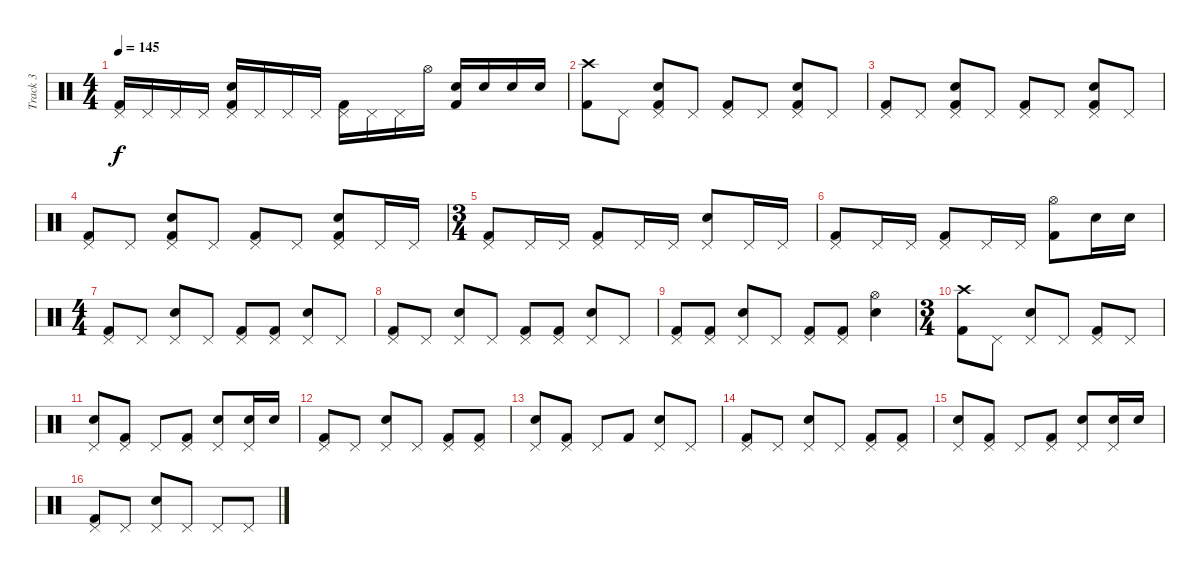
\track ("Track 3" "Track 3") {instrument percussion}
\staff {score}
\articulation defaults
\ts (4 4)
\tempo 145
\clef neutral
\ks c
("Pedal Hi-Hat (hit)" "Kick (hit) 2").16{dy f} "Pedal Hi-Hat (hit)".16 "Pedal Hi-Hat (hit)".16 "Pedal Hi-Hat (hit)".16 ("Pedal Hi-Hat (hit)" "Kick (hit) 2" "Electric Snare (hit)").16 "Pedal Hi-Hat (hit)".16 "Pedal Hi-Hat (hit)".16 "Pedal Hi-Hat (hit)".16 ("Pedal Hi-Hat (hit)" "Kick (hit) 2").16 "Pedal Hi-Hat (hit)".16 "Pedal Hi-Hat (hit)".16 "Hi-Hat (open)".16 ("Kick (hit) 2" "Electric Snare (hit)").16 "Electric Snare (hit)".16 "Electric Snare (hit)".16 "Electric Snare (hit)".16 |
("Crash high (hit)" "Kick (hit) 2").8 "Pedal Hi-Hat (hit)".8 ("Pedal Hi-Hat (hit)" "Kick (hit) 2" "Electric Snare (hit)").8 "Pedal Hi-Hat (hit)".8 ("Pedal Hi-Hat (hit)" "Kick (hit) 2").8 "Pedal Hi-Hat (hit)".8 ("Pedal Hi-Hat (hit)" "Kick (hit) 2" "Electric Snare (hit)").8 "Pedal Hi-Hat (hit)".8 |
("Pedal Hi-Hat (hit)" "Kick (hit) 2").8 "Pedal Hi-Hat (hit)".8 ("Pedal Hi-Hat (hit)" "Kick (hit) 2" "Electric Snare (hit)").8 "Pedal Hi-Hat (hit)".8 ("Pedal Hi-Hat (hit)" "Kick (hit) 2").8 "Pedal Hi-Hat (hit)".8 ("Pedal Hi-Hat (hit)" "Kick (hit) 2" "Electric Snare (hit)").8 "Pedal Hi-Hat (hit)".8 |
("Pedal Hi-Hat (hit)" "Kick (hit) 2").8 "Pedal Hi-Hat (hit)".8 ("Pedal Hi-Hat (hit)" "Kick (hit) 2" "Electric Snare (hit)").8 "Pedal Hi-Hat (hit)".8 ("Pedal Hi-Hat (hit)" "Kick (hit) 2").8 "Pedal Hi-Hat (hit)".8 ("Pedal Hi-Hat (hit)" "Kick (hit) 2" "Electric Snare (hit)").8 "Pedal Hi-Hat (hit)".16 "Pedal Hi-Hat (hit)".16 |
\ts (3 4)
("Pedal Hi-Hat (hit)" "Kick (hit) 2").8 "Pedal Hi-Hat (hit)".16 "Pedal Hi-Hat (hit)".16 ("Pedal Hi-Hat (hit)" "Kick (hit) 2").8 "Pedal Hi-Hat (hit)".16 "Pedal Hi-Hat (hit)".16 ("Pedal Hi-Hat (hit)" "Electric Snare (hit)").8 "Pedal Hi-Hat (hit)".16 "Pedal Hi-Hat (hit)".16 |
("Pedal Hi-Hat (hit)" "Kick (hit) 2").8 "Pedal Hi-Hat (hit)".16 "Pedal Hi-Hat (hit)".16 ("Pedal Hi-Hat (hit)" "Kick (hit) 2").8 "Pedal Hi-Hat (hit)".16 "Pedal Hi-Hat (hit)".16 ("Hi-Hat (open)" "Kick (hit) 2").8 "Electric Snare (hit)".16 "Electric Snare (hit)".16 |
\ts (4 4)
("Kick (hit) 2" "Pedal Hi-Hat (hit)").8 "Pedal Hi-Hat (hit)".8 ("Electric Snare (hit)" "Pedal Hi-Hat (hit)").8 "Pedal Hi-Hat (hit)".8 ("Pedal Hi-Hat (hit)" "Kick (hit) 2").8 ("Kick (hit) 2" "Pedal Hi-Hat (hit)").8 ("Pedal Hi-Hat (hit)" "Electric Snare (hit)").8 "Pedal Hi-Hat (hit)".8 |
("Kick (hit) 2" "Pedal Hi-Hat (hit)").8 "Pedal Hi-Hat (hit)".8 ("Electric Snare (hit)" "Pedal Hi-Hat (hit)").8 "Pedal Hi-Hat (hit)".8 ("Pedal Hi-Hat (hit)" "Kick (hit) 2").8 ("Kick (hit) 2" "Pedal Hi-Hat (hit)").8 ("Pedal Hi-Hat (hit)" "Electric Snare (hit)").8 "Pedal Hi-Hat (hit)".8 |
("Pedal Hi-Hat (hit)" "Kick (hit) 2").8 ("Kick (hit) 2" "Pedal Hi-Hat (hit)").8 ("Pedal Hi-Hat (hit)" "Electric Snare (hit)").8 "Pedal Hi-Hat (hit)".8 ("Pedal Hi-Hat (hit)" "Kick (hit) 2").8 ("Kick (hit) 2" "Pedal Hi-Hat (hit)").8 ("Hi-Hat (open)" "Electric Snare (hit)").4 |
\ts (3 4)
("Crash high (hit)" "Kick (hit) 2").8 "Pedal Hi-Hat (hit)".8 ("Pedal Hi-Hat (hit)" "Electric Snare (hit)").8 "Pedal Hi-Hat (hit)".8 ("Pedal Hi-Hat (hit)" "Kick (hit) 2").8 "Pedal Hi-Hat (hit)".8 |
("Pedal Hi-Hat (hit)" "Electric Snare (hit)").8 ("Pedal Hi-Hat (hit)" "Kick (hit) 2").8 "Pedal Hi-Hat (hit)".8 ("Pedal Hi-Hat (hit)" "Kick (hit) 2").8 ("Electric Snare (hit)" "Pedal Hi-Hat (hit)").8 ("Pedal Hi-Hat (hit)" "Electric Snare (hit)").16 "Electric Snare (hit)".16 |
("Pedal Hi-Hat (hit)" "Kick (hit) 2").8 "Pedal Hi-Hat (hit)".8 ("Pedal Hi-Hat (hit)" "Electric Snare (hit)").8 "Pedal Hi-Hat (hit)".8 ("Pedal Hi-Hat (hit)" "Kick (hit) 2").8 ("Pedal Hi-Hat (hit)" "Kick (hit) 2").8 |
("Pedal Hi-Hat (hit)" "Electric Snare (hit)").8 ("Pedal Hi-Hat (hit)" "Kick (hit) 2").8 "Pedal Hi-Hat (hit)".8 "Kick (hit) 2".8 ("Pedal Hi-Hat (hit)" "Electric Snare (hit)").8 "Pedal Hi-Hat (hit)".8 |
("Pedal Hi-Hat (hit)" "Kick (hit) 2").8 "Pedal Hi-Hat (hit)".8 ("Pedal Hi-Hat (hit)" "Electric Snare (hit)").8 "Pedal Hi-Hat (hit)".8 ("Pedal Hi-Hat (hit)" "Kick (hit) 2").8 ("Pedal Hi-Hat (hit)" "Kick (hit) 2").8 |
("Pedal Hi-Hat (hit)" "Electric Snare (hit)").8 ("Pedal Hi-Hat (hit)" "Kick (hit) 2").8 "Pedal Hi-Hat (hit)".8 ("Pedal Hi-Hat (hit)" "Kick (hit) 2").8 ("Electric Snare (hit)" "Pedal Hi-Hat (hit)").8 ("Pedal Hi-Hat (hit)" "Electric Snare (hit)").16 "Electric Snare (hit)".16 |
("Pedal Hi-Hat (hit)" "Kick (hit) 2").8 "Pedal Hi-Hat (hit)".8 ("Pedal Hi-Hat (hit)" "Electric Snare (hit)").8 "Pedal Hi-Hat (hit)".8 "Pedal Hi-Hat (hit)".8 "Pedal Hi-Hat (hit)".8
